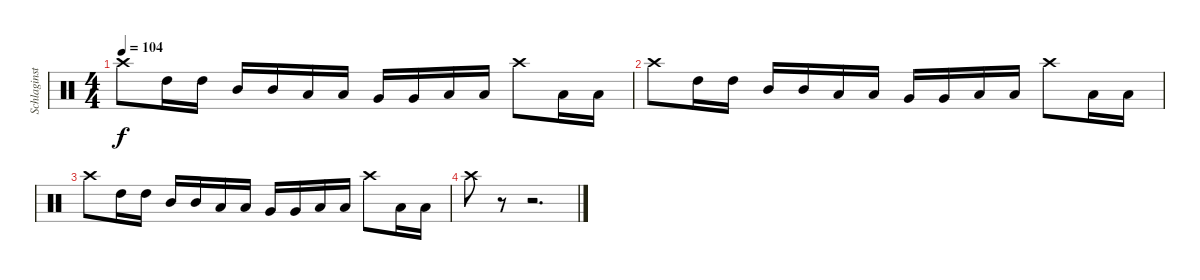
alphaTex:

\track ("Schlaginstrumente - Auswahl" "Schlaginst") {instrument percussion}
\staff {score}
\articulation defaults
\ts (4 4)
\tempo 104
\clef neutral
\ks c "Crash high (hit)".8{dy f} "High Tom (hit)".16 "High Tom (hit)".16 "Mid Tom (hit)".16 "Mid Tom (hit)".16 "Low Tom (hit)".16 "Low Tom (hit)".16 "Very Low Tom (hit)".16 "Very Low Tom (hit)".16 "Low Floor Tom (hit)".16 "Low Floor Tom (hit)".16 "Crash high (hit)".8 "Low Floor Tom (hit)".16 "Low Floor Tom (hit)".16
|
"Crash high (hit)".8 "High Tom (hit)".16 "High Tom (hit)".16 "Mid Tom (hit)".16 "Mid Tom (hit)".16 "Low Tom (hit)".16 "Low Tom (hit)".16 "Very Low Tom (hit)".16 "Very Low Tom (hit)".16 "Low Floor Tom (hit)".16 "Low Floor Tom (hit)".16 "Crash high (hit)".8 "Low Floor Tom (hit)".16 "Low Floor Tom (hit)".16 |
"Crash high (hit)".8 "High Tom (hit)".16 "High Tom (hit)".16 "Mid Tom (hit)".16 "Mid Tom (hit)".16 "Low Tom (hit)".16 "Low Tom (hit)".16 "Very Low Tom (hit)".16 "Very Low Tom (hit)".16 "Low Floor Tom (hit)".16 "Low Floor Tom (hit)".16 "Crash high (hit)".8 "Low Floor Tom (hit)".16 "Low Floor Tom (hit)".16 |
"Crash high (hit)".8 r.8 r.2{d}
